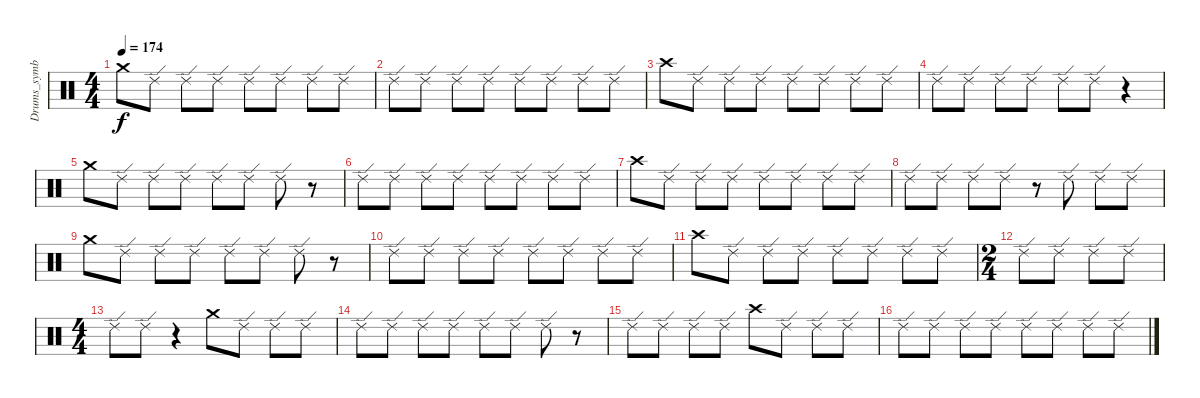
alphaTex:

\track ("Drums_symbal" "Drums_symb") {instrument percussion}
\staff {score}
\articulation defaults
\ts (4 4)
\tempo 174
\clef neutral
\ks c "Crash medium (hit)".8{dy f} "Ride (edge) 2".8 "Ride (edge) 2".8 "Ride (edge) 2".8 "Ride (edge) 2".8 "Ride (edge) 2".8 "Ride (edge) 2".8 "Ride (edge) 2".8
|
"Ride (edge) 2".8 "Ride (edge) 2".8 "Ride (edge) 2".8 "Ride (edge) 2".8 "Ride (edge) 2".8 "Ride (edge) 2".8 "Ride (edge) 2".8 "Ride (edge) 2".8 |
"Crash high (hit)".8 "Ride (edge) 2".8 "Ride (edge) 2".8 "Ride (edge) 2".8 "Ride (edge) 2".8 "Ride (edge) 2".8 "Ride (edge) 2".8 "Ride (edge) 2".8 |
"Ride (edge) 2".8 "Ride (edge) 2".8 "Ride (edge) 2".8 "Ride (edge) 2".8 "Ride (edge) 2".8 "Ride (edge) 2".8 r.4 |
"Crash medium (hit)".8 "Ride (edge) 2".8 "Ride (edge) 2".8 "Ride (edge) 2".8 "Ride (edge) 2".8 "Ride (edge) 2".8 "Ride (edge) 2".8 r.8 |
"Ride (edge) 2".8 "Ride (edge) 2".8 "Ride (edge) 2".8 "Ride (edge) 2".8 "Ride (edge) 2".8 "Ride (edge) 2".8 "Ride (edge) 2".8 "Ride (edge) 2".8 |
"Crash high (hit)".8 "Ride (edge) 2".8 "Ride (edge) 2".8 "Ride (edge) 2".8 "Ride (edge) 2".8 "Ride (edge) 2".8 "Ride (edge) 2".8 "Ride (edge) 2".8 |
"Ride (edge) 2".8 "Ride (edge) 2".8 "Ride (edge) 2".8 "Ride (edge) 2".8 r.8 "Ride (edge) 2".8 "Ride (edge) 2".8 "Ride (edge) 2".8 |
"Crash medium (hit)".8 "Ride (edge) 2".8 "Ride (edge) 2".8 "Ride (edge) 2".8 "Ride (edge) 2".8 "Ride (edge) 2".8 "Ride (edge) 2".8 r.8 |
"Ride (edge) 2".8 "Ride (edge) 2".8 "Ride (edge) 2".8 "Ride (edge) 2".8 "Ride (edge) 2".8 "Ride (edge) 2".8 "Ride (edge) 2".8 "Ride (edge) 2".8 |
"Crash high (hit)".8 "Ride (edge) 2".8 "Ride (edge) 2".8 "Ride (edge) 2".8 "Ride (edge) 2".8 "Ride (edge) 2".8 "Ride (edge) 2".8 "Ride (edge) 2".8 |
\ts (2 4)
"Ride (edge) 2".8 "Ride (edge) 2".8 "Ride (edge) 2".8 "Ride (edge) 2".8 |
\ts (4 4)
"Ride (edge) 2".8 "Ride (edge) 2".8 r.4 "Crash medium (hit)".8 "Ride (edge) 2".8 "Ride (edge) 2".8 "Ride (edge) 2".8 |
"Ride (edge) 2".8 "Ride (edge) 2".8 "Ride (edge) 2".8 "Ride (edge) 2".8 "Ride (edge) 2".8 "Ride (edge) 2".8 "Ride (edge) 2".8 r.8 |
"Ride (edge) 2".8 "Ride (edge) 2".8 "Ride (edge) 2".8 "Ride (edge) 2".8 "Crash high (hit)".8 "Ride (edge) 2".8 "Ride (edge) 2".8 "Ride (edge) 2".8 |
"Ride (edge) 2".8 "Ride (edge) 2".8 "Ride (edge) 2".8 "Ride (edge) 2".8 "Ride (edge) 2".8 "Ride (edge) 2".8 "Ride (edge) 2".8 "Ride (edge) 2".8
